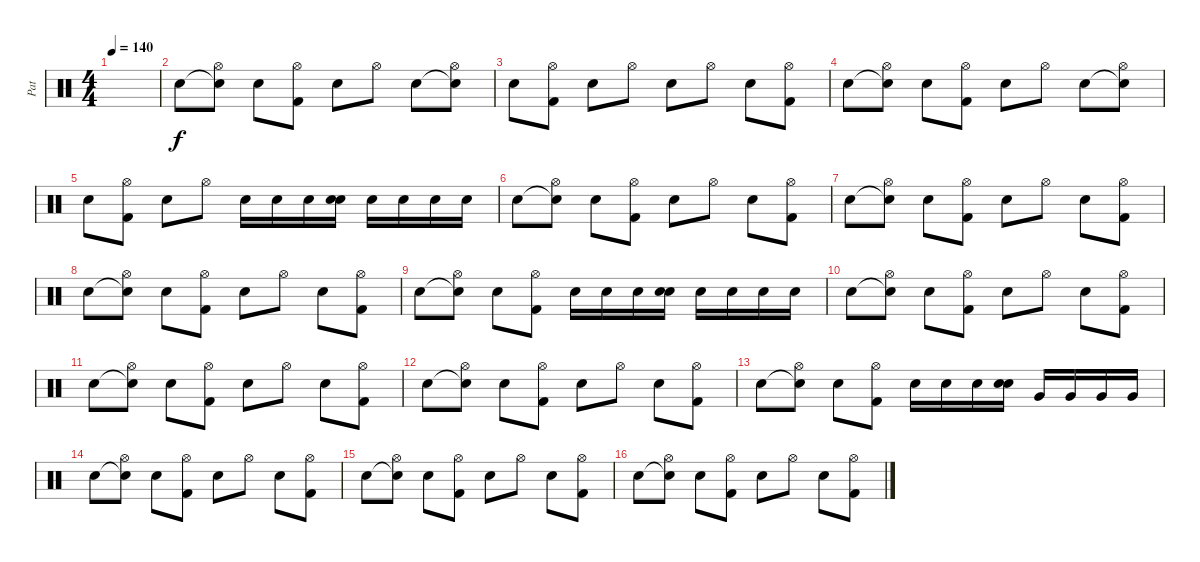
\track ("Pat" "Pat") {instrument percussion}
\staff {score}
\articulation defaults
\ts (4 4)
\tempo 140
\clef neutral
\ks c
|
"Snare (hit) 2".8 ("Snare (hit) 2"{t} "Hi-Hat (open)").8 "Snare (hit) 2".8 ("Kick (hit) 2" "Hi-Hat (open)").8 "Snare (hit) 2".8 "Hi-Hat (open)".8 "Snare (hit) 2".8 ("Snare (hit)"{t} "Hi-Hat (open)").8 |
"Snare (hit) 2".8 ("Kick (hit) 2" "Hi-Hat (open)").8 "Snare (hit) 2".8 "Hi-Hat (open)".8 "Snare (hit) 2".8 "Hi-Hat (open)".8 "Snare (hit) 2".8 ("Kick (hit) 2" "Hi-Hat (open)").8 |
"Snare (hit) 2".8 ("Snare (hit) 2"{t} "Hi-Hat (open)").8 "Snare (hit) 2".8 ("Kick (hit) 2" "Hi-Hat (open)").8 "Snare (hit) 2".8 "Hi-Hat (open)".8 "Snare (hit) 2".8 ("Snare (hit)"{t} "Hi-Hat (open)").8 |
"Snare (hit) 2".8 ("Kick (hit) 2" "Hi-Hat (open)").8 "Snare (hit) 2".8 "Hi-Hat (open)".8 "Snare (hit) 2".16 "Snare (hit) 2".16 "Snare (hit) 2".16 ("Snare (hit) 2" "Snare (hit) 2").16 "Snare (hit) 2".16 "Snare (hit) 2".16 "Snare (hit) 2".16 "Snare (hit) 2".16 |
"Snare (hit) 2".8 ("Snare (hit)"{t} "Hi-Hat (open)").8 "Snare (hit) 2".8 ("Kick (hit) 2" "Hi-Hat (open)").8 "Snare (hit) 2".8 "Hi-Hat (open)".8 "Snare (hit) 2".8 ("Kick (hit) 2" "Hi-Hat (open)").8 |
"Snare (hit) 2".8 ("Snare (hit)"{t} "Hi-Hat (open)").8 "Snare (hit) 2".8 ("Kick (hit) 2" "Hi-Hat (open)").8 "Snare (hit) 2".8 "Hi-Hat (open)".8 "Snare (hit) 2".8 ("Kick (hit) 2" "Hi-Hat (open)").8 |
"Snare (hit) 2".8 ("Snare (hit)"{t} "Hi-Hat (open)").8 "Snare (hit) 2".8 ("Kick (hit) 2" "Hi-Hat (open)").8 "Snare (hit) 2".8 "Hi-Hat (open)".8 "Snare (hit) 2".8 ("Kick (hit) 2" "Hi-Hat (open)").8 |
"Snare (hit) 2".8 ("Snare (hit)"{t} "Hi-Hat (open)").8 "Snare (hit) 2".8 ("Kick (hit) 2" "Hi-Hat (open)").8 "Snare (hit) 2".16 "Snare (hit) 2".16 "Snare (hit) 2".16 ("Snare (hit) 2" "Snare (hit) 2").16 "Snare (hit) 2".16 "Snare (hit) 2".16 "Snare (hit) 2".16 "Snare (hit) 2".16 |
"Snare (hit) 2".8 ("Snare (hit)"{t} "Hi-Hat (open)").8 "Snare (hit) 2".8 ("Kick (hit) 2" "Hi-Hat (open)").8 "Snare (hit) 2".8 "Hi-Hat (open)".8 "Snare (hit) 2".8 ("Kick (hit) 2" "Hi-Hat (open)").8 |
"Snare (hit) 2".8 ("Snare (hit)"{t} "Hi-Hat (open)").8 "Snare (hit) 2".8 ("Kick (hit) 2" "Hi-Hat (open)").8 "Snare (hit) 2".8 "Hi-Hat (open)".8 "Snare (hit) 2".8 ("Kick (hit) 2" "Hi-Hat (open)").8 |
"Snare (hit) 2".8 ("Snare (hit)"{t} "Hi-Hat (open)").8 "Snare (hit) 2".8 ("Kick (hit) 2" "Hi-Hat (open)").8 "Snare (hit) 2".8 "Hi-Hat (open)".8 "Snare (hit) 2".8 ("Kick (hit) 2" "Hi-Hat (open)").8 |
"Snare (hit) 2".8 ("Snare (hit)"{t} "Hi-Hat (open)").8 "Snare (hit) 2".8 ("Kick (hit) 2" "Hi-Hat (open)").8 "Snare (hit) 2".16 "Snare (hit) 2".16 "Snare (hit) 2".16 ("Snare (hit) 2" "Snare (hit) 2").16 "Very Low Tom (hit)".16 "Very Low Tom (hit)".16 "Very Low Tom (hit)".16 "Very Low Tom (hit)".16 |
"Snare (hit) 2".8 ("Snare (hit)"{t} "Hi-Hat (open)").8 "Snare (hit) 2".8 ("Kick (hit) 2" "Hi-Hat (open)").8 "Snare (hit) 2".8 "Hi-Hat (open)".8 "Snare (hit) 2".8 ("Kick (hit) 2" "Hi-Hat (open)").8 |
"Snare (hit) 2".8 ("Snare (hit)"{t} "Hi-Hat (open)").8 "Snare (hit) 2".8 ("Kick (hit) 2" "Hi-Hat (open)").8 "Snare (hit) 2".8 "Hi-Hat (open)".8 "Snare (hit) 2".8 ("Kick (hit) 2" "Hi-Hat (open)").8 |
"Snare (hit) 2".8 ("Snare (hit)"{t} "Hi-Hat (open)").8 "Snare (hit) 2".8 ("Kick (hit) 2" "Hi-Hat (open)").8 "Snare (hit) 2".8 "Hi-Hat (open)".8 "Snare (hit) 2".8 ("Kick (hit) 2" "Hi-Hat (open)").8
